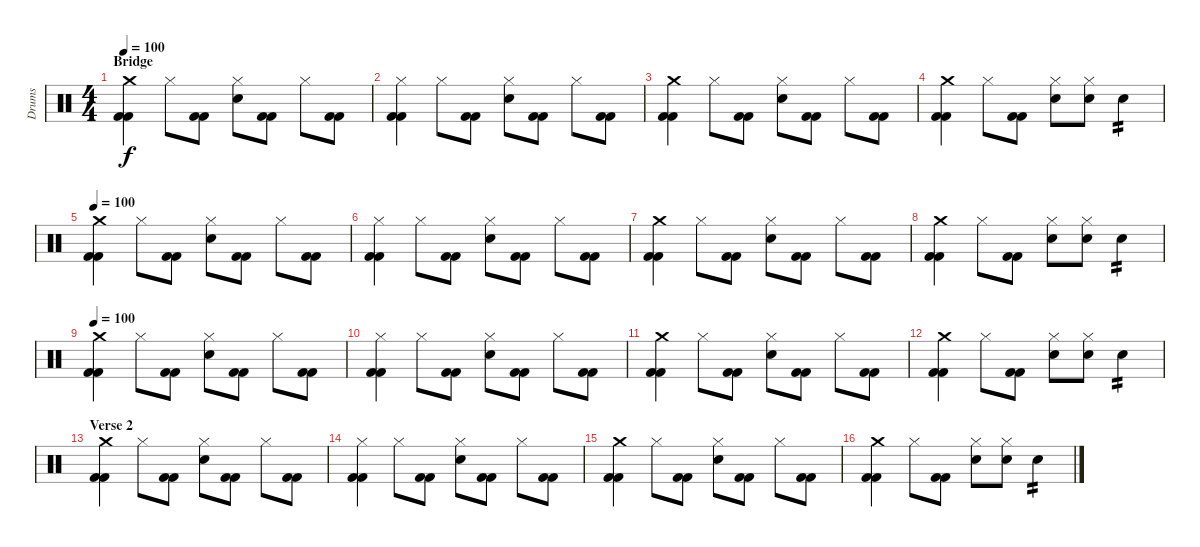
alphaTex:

\track ("Drums" "Drums") {instrument percussion}
\staff {score}
\articulation defaults
\ts (4 4)
\section ("" "Bridge ")
\tempo 100
\clef neutral
\ks c
("Kick (hit) 2" "Kick (hit) 2" "Crash medium (hit)").4{dy f} "Hi-Hat (closed)".8 ("Kick (hit) 2" "Kick (hit) 2").8 ("Electric Snare (hit)" "Hi-Hat (closed)").8 ("Kick (hit) 2" "Kick (hit) 2").8 "Hi-Hat (closed)".8 ("Kick (hit) 2" "Kick (hit) 2").8 |
("Kick (hit) 2" "Kick (hit) 2" "Hi-Hat (closed)").4 "Hi-Hat (closed)".8 ("Kick (hit) 2" "Kick (hit) 2").8 ("Electric Snare (hit)" "Hi-Hat (closed)").8 ("Kick (hit) 2" "Kick (hit) 2").8 "Hi-Hat (closed)".8 ("Kick (hit) 2" "Kick (hit) 2").8 |
("Kick (hit) 2" "Kick (hit) 2" "Crash medium (hit)").4 "Hi-Hat (closed)".8 ("Kick (hit) 2" "Kick (hit) 2").8 ("Electric Snare (hit)" "Hi-Hat (closed)").8 ("Kick (hit) 2" "Kick (hit) 2").8 "Hi-Hat (closed)".8 ("Kick (hit) 2" "Kick (hit) 2").8 |
("Kick (hit) 2" "Kick (hit) 2" "Crash medium (hit)").4 "Hi-Hat (closed)".8 ("Kick (hit) 2" "Kick (hit) 2").8 ("Electric Snare (hit)" "Hi-Hat (closed)").8 ("Hi-Hat (closed)" "Electric Snare (hit)").8 "Electric Snare (hit)".4{tp 2} |
\tempo 100
("Kick (hit) 2" "Kick (hit) 2" "Crash medium (hit)").4 "Hi-Hat (closed)".8 ("Kick (hit) 2" "Kick (hit) 2").8 ("Electric Snare (hit)" "Hi-Hat (closed)").8 ("Kick (hit) 2" "Kick (hit) 2").8 "Hi-Hat (closed)".8 ("Kick (hit) 2" "Kick (hit) 2").8 |
("Kick (hit) 2" "Kick (hit) 2" "Hi-Hat (closed)").4 "Hi-Hat (closed)".8 ("Kick (hit) 2" "Kick (hit) 2").8 ("Electric Snare (hit)" "Hi-Hat (closed)").8 ("Kick (hit) 2" "Kick (hit) 2").8 "Hi-Hat (closed)".8 ("Kick (hit) 2" "Kick (hit) 2").8 |
("Kick (hit) 2" "Kick (hit) 2" "Crash medium (hit)").4 "Hi-Hat (closed)".8 ("Kick (hit) 2" "Kick (hit) 2").8 ("Electric Snare (hit)" "Hi-Hat (closed)").8 ("Kick (hit) 2" "Kick (hit) 2").8 "Hi-Hat (closed)".8 ("Kick (hit) 2" "Kick (hit) 2").8 |
("Kick (hit) 2" "Kick (hit) 2" "Crash medium (hit)").4 "Hi-Hat (closed)".8 ("Kick (hit) 2" "Kick (hit) 2").8 ("Electric Snare (hit)" "Hi-Hat (closed)").8 ("Hi-Hat (closed)" "Electric Snare (hit)").8 "Electric Snare (hit)".4{tp 2} |
\tempo 100
("Kick (hit) 2" "Kick (hit) 2" "Crash medium (hit)").4 "Hi-Hat (closed)".8 ("Kick (hit) 2" "Kick (hit) 2").8 ("Electric Snare (hit)" "Hi-Hat (closed)").8 ("Kick (hit) 2" "Kick (hit) 2").8 "Hi-Hat (closed)".8 ("Kick (hit) 2" "Kick (hit) 2").8 |
("Kick (hit) 2" "Kick (hit) 2" "Hi-Hat (closed)").4 "Hi-Hat (closed)".8 ("Kick (hit) 2" "Kick (hit) 2").8 ("Electric Snare (hit)" "Hi-Hat (closed)").8 ("Kick (hit) 2" "Kick (hit) 2").8 "Hi-Hat (closed)".8 ("Kick (hit) 2" "Kick (hit) 2").8 |
("Kick (hit) 2" "Kick (hit) 2" "Crash medium (hit)").4 "Hi-Hat (closed)".8 ("Kick (hit) 2" "Kick (hit) 2").8 ("Electric Snare (hit)" "Hi-Hat (closed)").8 ("Kick (hit) 2" "Kick (hit) 2").8 "Hi-Hat (closed)".8 ("Kick (hit) 2" "Kick (hit) 2").8 |
("Kick (hit) 2" "Kick (hit) 2" "Crash medium (hit)").4 "Hi-Hat (closed)".8 ("Kick (hit) 2" "Kick (hit) 2").8 ("Electric Snare (hit)" "Hi-Hat (closed)").8 ("Hi-Hat (closed)" "Electric Snare (hit)").8 "Electric Snare (hit)".4{tp 2} |
\section ("" "Verse 2")
("Kick (hit) 2" "Kick (hit) 2" "Crash medium (hit)").4 "Hi-Hat (closed)".8 ("Kick (hit) 2" "Kick (hit) 2").8 ("Electric Snare (hit)" "Hi-Hat (closed)").8 ("Kick (hit) 2" "Kick (hit) 2").8 "Hi-Hat (closed)".8 ("Kick (hit) 2" "Kick (hit) 2").8 |
("Kick (hit) 2" "Kick (hit) 2" "Hi-Hat (closed)").4 "Hi-Hat (closed)".8 ("Kick (hit) 2" "Kick (hit) 2").8 ("Electric Snare (hit)" "Hi-Hat (closed)").8 ("Kick (hit) 2" "Kick (hit) 2").8 "Hi-Hat (closed)".8 ("Kick (hit) 2" "Kick (hit) 2").8 |
("Kick (hit) 2" "Kick (hit) 2" "Crash medium (hit)").4 "Hi-Hat (closed)".8 ("Kick (hit) 2" "Kick (hit) 2").8 ("Electric Snare (hit)" "Hi-Hat (closed)").8 ("Kick (hit) 2" "Kick (hit) 2").8 "Hi-Hat (closed)".8 ("Kick (hit) 2" "Kick (hit) 2").8 |
("Kick (hit) 2" "Kick (hit) 2" "Crash medium (hit)").4 "Hi-Hat (closed)".8 ("Kick (hit) 2" "Kick (hit) 2").8 ("Electric Snare (hit)" "Hi-Hat (closed)").8 ("Hi-Hat (closed)" "Electric Snare (hit)").8 "Electric Snare (hit)".4{tp 2}
